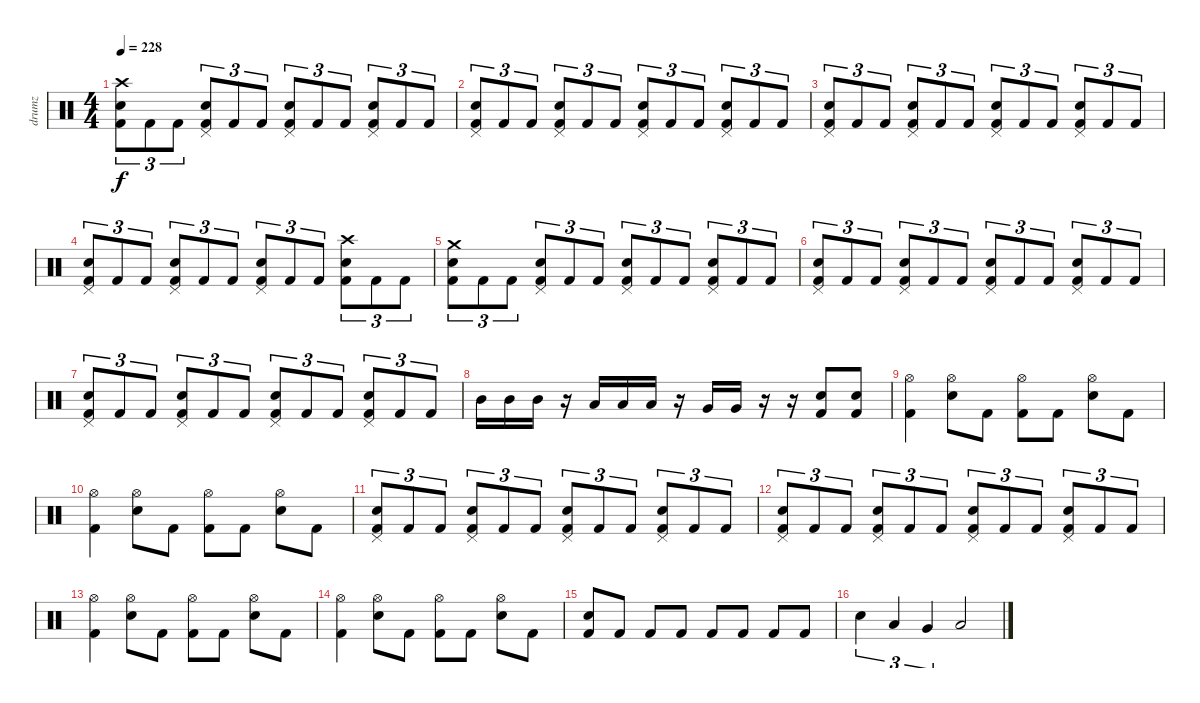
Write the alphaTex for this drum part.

\track ("drumz" "drumz") {instrument percussion}
\staff {score}
\articulation defaults
\ts (4 4)
\tempo 228
\clef neutral
\ks c
("Crash high (hit)" "Snare (hit) 2" "Kick (hit) 2").8{tu (3 2) dy f} "Kick (hit) 2".8{tu (3 2)} "Kick (hit) 2".8{tu (3 2)} ("Pedal Hi-Hat (hit)" "Snare (hit) 2" "Kick (hit) 2").8{tu (3 2)} "Kick (hit) 2".8{tu (3 2)} "Kick (hit) 2".8{tu (3 2)} ("Pedal Hi-Hat (hit)" "Snare (hit) 2" "Kick (hit) 2").8{tu (3 2)} "Kick (hit) 2".8{tu (3 2)} "Kick (hit) 2".8{tu (3 2)} ("Pedal Hi-Hat (hit)" "Snare (hit) 2" "Kick (hit) 2").8{tu (3 2)} "Kick (hit) 2".8{tu (3 2)} "Kick (hit) 2".8{tu (3 2)} |
("Pedal Hi-Hat (hit)" "Snare (hit) 2" "Kick (hit) 2").8{tu (3 2)} "Kick (hit) 2".8{tu (3 2)} "Kick (hit) 2".8{tu (3 2)} ("Pedal Hi-Hat (hit)" "Snare (hit) 2" "Kick (hit) 2").8{tu (3 2)} "Kick (hit) 2".8{tu (3 2)} "Kick (hit) 2".8{tu (3 2)} ("Pedal Hi-Hat (hit)" "Snare (hit) 2" "Kick (hit) 2").8{tu (3 2)} "Kick (hit) 2".8{tu (3 2)} "Kick (hit) 2".8{tu (3 2)} ("Pedal Hi-Hat (hit)" "Snare (hit) 2" "Kick (hit) 2").8{tu (3 2)} "Kick (hit) 2".8{tu (3 2)} "Kick (hit) 2".8{tu (3 2)} |
("Pedal Hi-Hat (hit)" "Snare (hit) 2" "Kick (hit) 2").8{tu (3 2)} "Kick (hit) 2".8{tu (3 2)} "Kick (hit) 2".8{tu (3 2)} ("Pedal Hi-Hat (hit)" "Snare (hit) 2" "Kick (hit) 2").8{tu (3 2)} "Kick (hit) 2".8{tu (3 2)} "Kick (hit) 2".8{tu (3 2)} ("Pedal Hi-Hat (hit)" "Snare (hit) 2" "Kick (hit) 2").8{tu (3 2)} "Kick (hit) 2".8{tu (3 2)} "Kick (hit) 2".8{tu (3 2)} ("Pedal Hi-Hat (hit)" "Snare (hit) 2" "Kick (hit) 2").8{tu (3 2)} "Kick (hit) 2".8{tu (3 2)} "Kick (hit) 2".8{tu (3 2)} |
("Pedal Hi-Hat (hit)" "Snare (hit) 2" "Kick (hit) 2").8{tu (3 2)} "Kick (hit) 2".8{tu (3 2)} "Kick (hit) 2".8{tu (3 2)} ("Pedal Hi-Hat (hit)" "Snare (hit) 2" "Kick (hit) 2").8{tu (3 2)} "Kick (hit) 2".8{tu (3 2)} "Kick (hit) 2".8{tu (3 2)} ("Pedal Hi-Hat (hit)" "Snare (hit) 2" "Kick (hit) 2").8{tu (3 2)} "Kick (hit) 2".8{tu (3 2)} "Kick (hit) 2".8{tu (3 2)} ("Crash high (hit)" "Snare (hit) 2" "Kick (hit) 2").8{tu (3 2)} "Kick (hit) 2".8{tu (3 2)} "Kick (hit) 2".8{tu (3 2)} |
("Crash medium (hit)" "Snare (hit) 2" "Kick (hit) 2").8{tu (3 2)} "Kick (hit) 2".8{tu (3 2)} "Kick (hit) 2".8{tu (3 2)} ("Pedal Hi-Hat (hit)" "Snare (hit) 2" "Kick (hit) 2").8{tu (3 2)} "Kick (hit) 2".8{tu (3 2)} "Kick (hit) 2".8{tu (3 2)} ("Pedal Hi-Hat (hit)" "Snare (hit) 2" "Kick (hit) 2").8{tu (3 2)} "Kick (hit) 2".8{tu (3 2)} "Kick (hit) 2".8{tu (3 2)} ("Pedal Hi-Hat (hit)" "Snare (hit) 2" "Kick (hit) 2").8{tu (3 2)} "Kick (hit) 2".8{tu (3 2)} "Kick (hit) 2".8{tu (3 2)} |
("Pedal Hi-Hat (hit)" "Snare (hit) 2" "Kick (hit) 2").8{tu (3 2)} "Kick (hit) 2".8{tu (3 2)} "Kick (hit) 2".8{tu (3 2)} ("Pedal Hi-Hat (hit)" "Snare (hit) 2" "Kick (hit) 2").8{tu (3 2)} "Kick (hit) 2".8{tu (3 2)} "Kick (hit) 2".8{tu (3 2)} ("Pedal Hi-Hat (hit)" "Snare (hit) 2" "Kick (hit) 2").8{tu (3 2)} "Kick (hit) 2".8{tu (3 2)} "Kick (hit) 2".8{tu (3 2)} ("Pedal Hi-Hat (hit)" "Snare (hit) 2" "Kick (hit) 2").8{tu (3 2)} "Kick (hit) 2".8{tu (3 2)} "Kick (hit) 2".8{tu (3 2)} |
("Pedal Hi-Hat (hit)" "Snare (hit) 2" "Kick (hit) 2").8{tu (3 2)} "Kick (hit) 2".8{tu (3 2)} "Kick (hit) 2".8{tu (3 2)} ("Pedal Hi-Hat (hit)" "Snare (hit) 2" "Kick (hit) 2").8{tu (3 2)} "Kick (hit) 2".8{tu (3 2)} "Kick (hit) 2".8{tu (3 2)} ("Pedal Hi-Hat (hit)" "Snare (hit) 2" "Kick (hit) 2").8{tu (3 2)} "Kick (hit) 2".8{tu (3 2)} "Kick (hit) 2".8{tu (3 2)} ("Pedal Hi-Hat (hit)" "Snare (hit) 2" "Kick (hit) 2").8{tu (3 2)} "Kick (hit) 2".8{tu (3 2)} "Kick (hit) 2".8{tu (3 2)} |
"Mid Tom (hit)".16 "Mid Tom (hit)".16 "Mid Tom (hit)".16 r.16 "Low Tom (hit)".16 "Low Tom (hit)".16 "Low Tom (hit)".16 r.16 "Very Low Tom (hit)".16 "Very Low Tom (hit)".16 r.16 r.16 ("Snare (hit) 2" "Kick (hit) 2").8 ("Snare (hit) 2" "Kick (hit) 2").8 |
("Hi-Hat (open)" "Kick (hit) 2").4 ("Hi-Hat (open)" "Snare (hit) 2").8 "Kick (hit) 2".8 ("Hi-Hat (open)" "Kick (hit) 2").8 "Kick (hit) 2".8 ("Hi-Hat (open)" "Snare (hit) 2").8 "Kick (hit) 2".8 |
("Hi-Hat (open)" "Kick (hit) 2").4 ("Hi-Hat (open)" "Snare (hit) 2").8 "Kick (hit) 2".8 ("Hi-Hat (open)" "Kick (hit) 2").8 "Kick (hit) 2".8 ("Hi-Hat (open)" "Snare (hit) 2").8 "Kick (hit) 2".8 |
("Pedal Hi-Hat (hit)" "Snare (hit) 2" "Kick (hit) 2").8{tu (3 2)} "Kick (hit) 2".8{tu (3 2)} "Kick (hit) 2".8{tu (3 2)} ("Pedal Hi-Hat (hit)" "Snare (hit) 2" "Kick (hit) 2").8{tu (3 2)} "Kick (hit) 2".8{tu (3 2)} "Kick (hit) 2".8{tu (3 2)} ("Pedal Hi-Hat (hit)" "Snare (hit) 2" "Kick (hit) 2").8{tu (3 2)} "Kick (hit) 2".8{tu (3 2)} "Kick (hit) 2".8{tu (3 2)} ("Pedal Hi-Hat (hit)" "Snare (hit) 2" "Kick (hit) 2").8{tu (3 2)} "Kick (hit) 2".8{tu (3 2)} "Kick (hit) 2".8{tu (3 2)} |
("Pedal Hi-Hat (hit)" "Snare (hit) 2" "Kick (hit) 2").8{tu (3 2)} "Kick (hit) 2".8{tu (3 2)} "Kick (hit) 2".8{tu (3 2)} ("Pedal Hi-Hat (hit)" "Snare (hit) 2" "Kick (hit) 2").8{tu (3 2)} "Kick (hit) 2".8{tu (3 2)} "Kick (hit) 2".8{tu (3 2)} ("Pedal Hi-Hat (hit)" "Snare (hit) 2" "Kick (hit) 2").8{tu (3 2)} "Kick (hit) 2".8{tu (3 2)} "Kick (hit) 2".8{tu (3 2)} ("Pedal Hi-Hat (hit)" "Snare (hit) 2" "Kick (hit) 2").8{tu (3 2)} "Kick (hit) 2".8{tu (3 2)} "Kick (hit) 2".8{tu (3 2)} |
("Hi-Hat (open)" "Kick (hit) 2").4 ("Hi-Hat (open)" "Snare (hit) 2").8 "Kick (hit) 2".8 ("Hi-Hat (open)" "Kick (hit) 2").8 "Kick (hit) 2".8 ("Hi-Hat (open)" "Snare (hit) 2").8 "Kick (hit) 2".8 |
("Hi-Hat (open)" "Kick (hit) 2").4 ("Hi-Hat (open)" "Snare (hit) 2").8 "Kick (hit) 2".8 ("Hi-Hat (open)" "Kick (hit) 2").8 "Kick (hit) 2".8 ("Hi-Hat (open)" "Snare (hit) 2").8 "Kick (hit) 2".8 |
("Snare (hit) 2" "Kick (hit) 2").8 "Kick (hit) 2".8 "Kick (hit) 2".8 "Kick (hit) 2".8 "Kick (hit) 2".8 "Kick (hit) 2".8 "Kick (hit) 2".8 "Kick (hit) 2".8 |
"Snare (hit) 2".4{tu (3 2)} "Low Tom (hit)".4{tu (3 2)} "Very Low Tom (hit)".4{tu (3 2)} "Low Floor Tom (hit)".2
